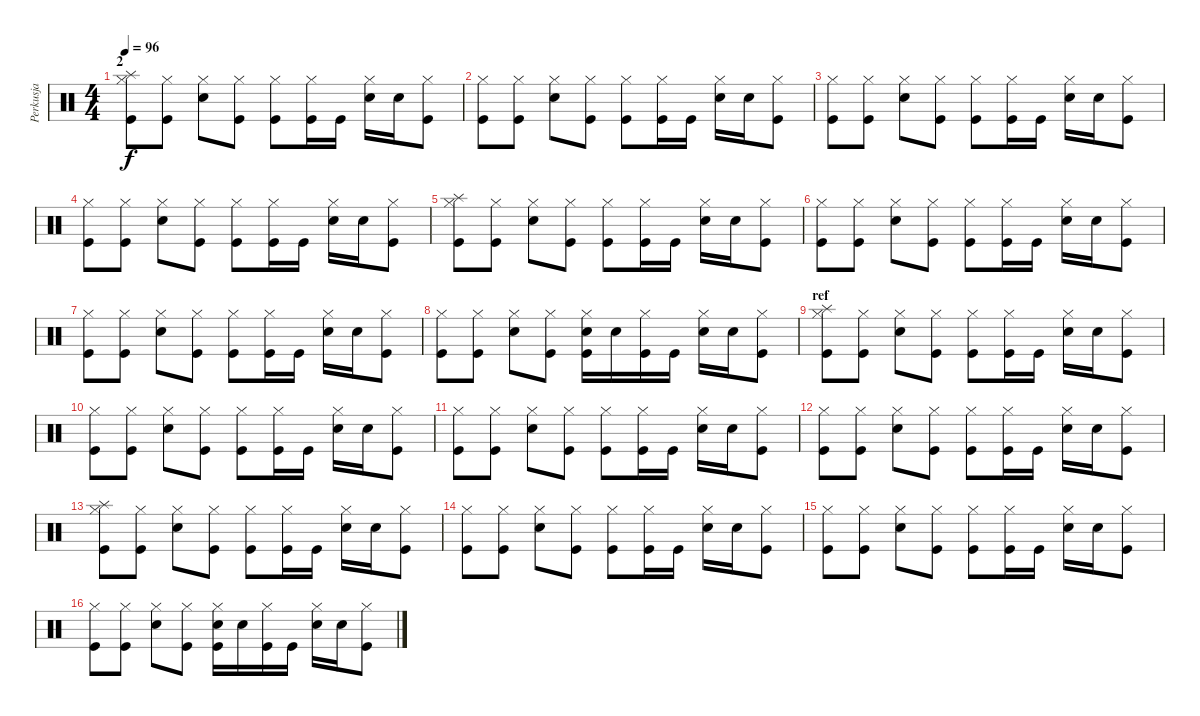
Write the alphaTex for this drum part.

\track ("Perkusja" "Perkusja") {instrument percussion}
\staff {score}
\articulation defaults
\ts (4 4)
\section ("" "2")
\tempo 96
\clef neutral
\ks c
("Splash (hit)" "Hi-Hat (closed)" "Kick (hit)").8{dy f} ("Hi-Hat (closed)" "Kick (hit)").8 ("Electric Snare (hit)" "Hi-Hat (closed)").8 ("Hi-Hat (closed)" "Kick (hit)").8 ("Hi-Hat (closed)" "Kick (hit)").8 ("Hi-Hat (closed)" "Kick (hit)").16 "Kick (hit)".16 ("Electric Snare (hit)" "Hi-Hat (closed)").16 "Electric Snare (hit)".16 ("Hi-Hat (closed)" "Kick (hit)").8 |
("Hi-Hat (closed)" "Kick (hit)").8 ("Hi-Hat (closed)" "Kick (hit)").8 ("Electric Snare (hit)" "Hi-Hat (closed)").8 ("Hi-Hat (closed)" "Kick (hit)").8 ("Hi-Hat (closed)" "Kick (hit)").8 ("Hi-Hat (closed)" "Kick (hit)").16 "Kick (hit)".16 ("Electric Snare (hit)" "Hi-Hat (closed)").16 "Electric Snare (hit)".16 ("Hi-Hat (closed)" "Kick (hit)").8 |
("Hi-Hat (closed)" "Kick (hit)").8 ("Hi-Hat (closed)" "Kick (hit)").8 ("Electric Snare (hit)" "Hi-Hat (closed)").8 ("Hi-Hat (closed)" "Kick (hit)").8 ("Hi-Hat (closed)" "Kick (hit)").8 ("Hi-Hat (closed)" "Kick (hit)").16 "Kick (hit)".16 ("Electric Snare (hit)" "Hi-Hat (closed)").16 "Electric Snare (hit)".16 ("Hi-Hat (closed)" "Kick (hit)").8 |
("Hi-Hat (closed)" "Kick (hit)").8 ("Hi-Hat (closed)" "Kick (hit)").8 ("Electric Snare (hit)" "Hi-Hat (closed)").8 ("Hi-Hat (closed)" "Kick (hit)").8 ("Hi-Hat (closed)" "Kick (hit)").8 ("Hi-Hat (closed)" "Kick (hit)").16 "Kick (hit)".16 ("Electric Snare (hit)" "Hi-Hat (closed)").16 "Electric Snare (hit)".16 ("Hi-Hat (closed)" "Kick (hit)").8 |
("Splash (hit)" "Hi-Hat (closed)" "Kick (hit)").8 ("Hi-Hat (closed)" "Kick (hit)").8 ("Electric Snare (hit)" "Hi-Hat (closed)").8 ("Hi-Hat (closed)" "Kick (hit)").8 ("Hi-Hat (closed)" "Kick (hit)").8 ("Hi-Hat (closed)" "Kick (hit)").16 "Kick (hit)".16 ("Electric Snare (hit)" "Hi-Hat (closed)").16 "Electric Snare (hit)".16 ("Hi-Hat (closed)" "Kick (hit)").8 |
("Hi-Hat (closed)" "Kick (hit)").8 ("Hi-Hat (closed)" "Kick (hit)").8 ("Electric Snare (hit)" "Hi-Hat (closed)").8 ("Hi-Hat (closed)" "Kick (hit)").8 ("Hi-Hat (closed)" "Kick (hit)").8 ("Hi-Hat (closed)" "Kick (hit)").16 "Kick (hit)".16 ("Electric Snare (hit)" "Hi-Hat (closed)").16 "Electric Snare (hit)".16 ("Hi-Hat (closed)" "Kick (hit)").8 |
("Hi-Hat (closed)" "Kick (hit)").8 ("Hi-Hat (closed)" "Kick (hit)").8 ("Electric Snare (hit)" "Hi-Hat (closed)").8 ("Hi-Hat (closed)" "Kick (hit)").8 ("Hi-Hat (closed)" "Kick (hit)").8 ("Hi-Hat (closed)" "Kick (hit)").16 "Kick (hit)".16 ("Electric Snare (hit)" "Hi-Hat (closed)").16 "Electric Snare (hit)".16 ("Hi-Hat (closed)" "Kick (hit)").8 |
("Hi-Hat (closed)" "Kick (hit)").8 ("Hi-Hat (closed)" "Kick (hit)").8 ("Electric Snare (hit)" "Hi-Hat (closed)").8 ("Hi-Hat (closed)" "Kick (hit)").8 ("Electric Snare (hit)" "Hi-Hat (closed)" "Kick (hit)").16 "Electric Snare (hit)".16 ("Hi-Hat (closed)" "Kick (hit)").16 "Kick (hit)".16 ("Electric Snare (hit)" "Hi-Hat (closed)").16 "Electric Snare (hit)".16 ("Hi-Hat (closed)" "Kick (hit)").8 |
\section ("" "ref")
("Splash (hit)" "Hi-Hat (closed)" "Kick (hit)").8 ("Hi-Hat (closed)" "Kick (hit)").8 ("Electric Snare (hit)" "Hi-Hat (closed)").8 ("Hi-Hat (closed)" "Kick (hit)").8 ("Hi-Hat (closed)" "Kick (hit)").8 ("Hi-Hat (closed)" "Kick (hit)").16 "Kick (hit)".16 ("Electric Snare (hit)" "Hi-Hat (closed)").16 "Electric Snare (hit)".16 ("Hi-Hat (closed)" "Kick (hit)").8 |
("Hi-Hat (closed)" "Kick (hit)").8 ("Hi-Hat (closed)" "Kick (hit)").8 ("Electric Snare (hit)" "Hi-Hat (closed)").8 ("Hi-Hat (closed)" "Kick (hit)").8 ("Hi-Hat (closed)" "Kick (hit)").8 ("Hi-Hat (closed)" "Kick (hit)").16 "Kick (hit)".16 ("Electric Snare (hit)" "Hi-Hat (closed)").16 "Electric Snare (hit)".16 ("Hi-Hat (closed)" "Kick (hit)").8 |
("Hi-Hat (closed)" "Kick (hit)").8 ("Hi-Hat (closed)" "Kick (hit)").8 ("Electric Snare (hit)" "Hi-Hat (closed)").8 ("Hi-Hat (closed)" "Kick (hit)").8 ("Hi-Hat (closed)" "Kick (hit)").8 ("Hi-Hat (closed)" "Kick (hit)").16 "Kick (hit)".16 ("Electric Snare (hit)" "Hi-Hat (closed)").16 "Electric Snare (hit)".16 ("Hi-Hat (closed)" "Kick (hit)").8 |
("Hi-Hat (closed)" "Kick (hit)").8 ("Hi-Hat (closed)" "Kick (hit)").8 ("Electric Snare (hit)" "Hi-Hat (closed)").8 ("Hi-Hat (closed)" "Kick (hit)").8 ("Hi-Hat (closed)" "Kick (hit)").8 ("Hi-Hat (closed)" "Kick (hit)").16 "Kick (hit)".16 ("Electric Snare (hit)" "Hi-Hat (closed)").16 "Electric Snare (hit)".16 ("Hi-Hat (closed)" "Kick (hit)").8 |
("Splash (hit)" "Hi-Hat (closed)" "Kick (hit)").8 ("Hi-Hat (closed)" "Kick (hit)").8 ("Electric Snare (hit)" "Hi-Hat (closed)").8 ("Hi-Hat (closed)" "Kick (hit)").8 ("Hi-Hat (closed)" "Kick (hit)").8 ("Hi-Hat (closed)" "Kick (hit)").16 "Kick (hit)".16 ("Electric Snare (hit)" "Hi-Hat (closed)").16 "Electric Snare (hit)".16 ("Hi-Hat (closed)" "Kick (hit)").8 |
("Hi-Hat (closed)" "Kick (hit)").8 ("Hi-Hat (closed)" "Kick (hit)").8 ("Electric Snare (hit)" "Hi-Hat (closed)").8 ("Hi-Hat (closed)" "Kick (hit)").8 ("Hi-Hat (closed)" "Kick (hit)").8 ("Hi-Hat (closed)" "Kick (hit)").16 "Kick (hit)".16 ("Electric Snare (hit)" "Hi-Hat (closed)").16 "Electric Snare (hit)".16 ("Hi-Hat (closed)" "Kick (hit)").8 |
("Hi-Hat (closed)" "Kick (hit)").8 ("Hi-Hat (closed)" "Kick (hit)").8 ("Electric Snare (hit)" "Hi-Hat (closed)").8 ("Hi-Hat (closed)" "Kick (hit)").8 ("Hi-Hat (closed)" "Kick (hit)").8 ("Hi-Hat (closed)" "Kick (hit)").16 "Kick (hit)".16 ("Electric Snare (hit)" "Hi-Hat (closed)").16 "Electric Snare (hit)".16 ("Hi-Hat (closed)" "Kick (hit)").8 |
("Hi-Hat (closed)" "Kick (hit)").8 ("Hi-Hat (closed)" "Kick (hit)").8 ("Electric Snare (hit)" "Hi-Hat (closed)").8 ("Hi-Hat (closed)" "Kick (hit)").8 ("Electric Snare (hit)" "Hi-Hat (closed)" "Kick (hit)").16 "Electric Snare (hit)".16 ("Hi-Hat (closed)" "Kick (hit)").16 "Kick (hit)".16 ("Electric Snare (hit)" "Hi-Hat (closed)").16 "Electric Snare (hit)".16 ("Hi-Hat (closed)" "Kick (hit)").8
